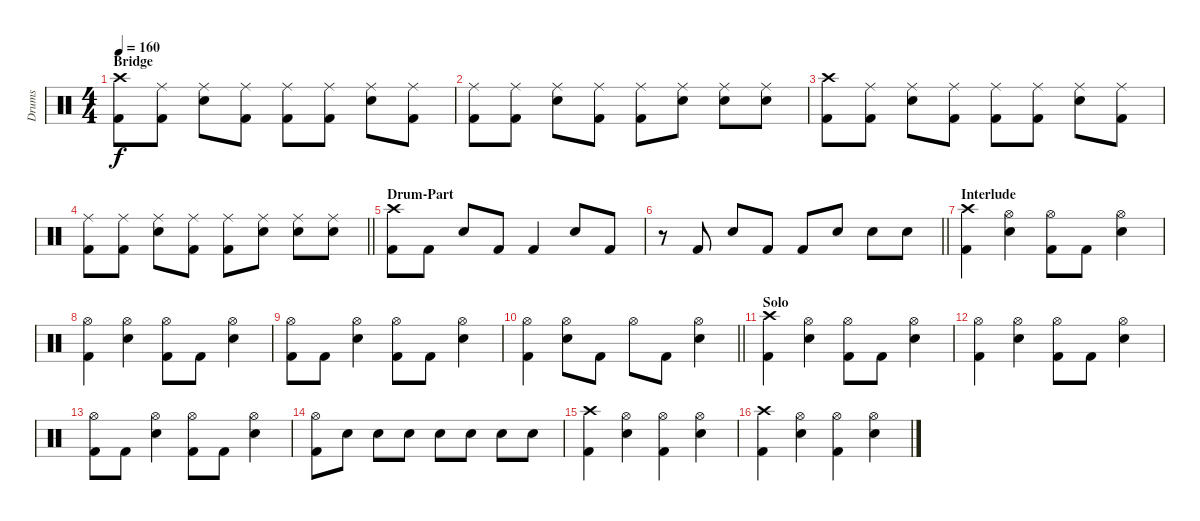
\track ("Drums" "Drums") {instrument percussion}
\staff {score}
\articulation defaults
\ts (4 4)
\section ("" "Bridge")
\tempo 160
\clef neutral
\ks c
("Crash high (hit)" "Kick (hit) 2").8{dy f} ("Ride (middle)" "Kick (hit) 2").8 ("Ride (middle)" "Electric Snare (hit)").8 ("Ride (middle)" "Kick (hit) 2").8 ("Ride (middle)" "Kick (hit) 2").8 ("Ride (middle)" "Kick (hit) 2").8 ("Ride (middle)" "Electric Snare (hit)").8 ("Ride (middle)" "Kick (hit) 2").8 |
("Ride (middle)" "Kick (hit) 2").8 ("Ride (middle)" "Kick (hit) 2").8 ("Ride (middle)" "Electric Snare (hit)").8 ("Ride (middle)" "Kick (hit) 2").8 ("Ride (middle)" "Kick (hit) 2").8 ("Ride (middle)" "Electric Snare (hit)").8 ("Ride (middle)" "Electric Snare (hit)").8 ("Ride (middle)" "Electric Snare (hit)").8 |
("Crash high (hit)" "Kick (hit) 2").8 ("Ride (middle)" "Kick (hit) 2").8 ("Ride (middle)" "Electric Snare (hit)").8 ("Ride (middle)" "Kick (hit) 2").8 ("Ride (middle)" "Kick (hit) 2").8 ("Ride (middle)" "Kick (hit) 2").8 ("Ride (middle)" "Electric Snare (hit)").8 ("Ride (middle)" "Kick (hit) 2").8 |
\barLineRight lightlight
("Ride (middle)" "Kick (hit) 2").8 ("Ride (middle)" "Kick (hit) 2").8 ("Ride (middle)" "Electric Snare (hit)").8 ("Ride (middle)" "Kick (hit) 2").8 ("Ride (middle)" "Kick (hit) 2").8 ("Ride (middle)" "Electric Snare (hit)").8 ("Ride (middle)" "Electric Snare (hit)").8 ("Ride (middle)" "Electric Snare (hit)").8 |
\section ("" "Drum-Part")
("Crash high (hit)" "Kick (hit) 2").8 "Kick (hit) 2".8 "Electric Snare (hit)".8 "Kick (hit) 2".8 "Kick (hit) 2".4 "Electric Snare (hit)".8 "Kick (hit) 2".8 |
\barLineRight lightlight
r.8 "Kick (hit) 2".8 "Electric Snare (hit)".8 "Kick (hit) 2".8 "Kick (hit) 2".8 "Electric Snare (hit)".8 "Electric Snare (hit)".8 "Electric Snare (hit)".8 |
\section ("" "Interlude")
("Crash high (hit)" "Kick (hit) 2").4 ("Hi-Hat (open)" "Electric Snare (hit)").4 ("Hi-Hat (open)" "Kick (hit) 2").8 "Kick (hit) 2".8 ("Hi-Hat (open)" "Electric Snare (hit)").4 |
("Hi-Hat (open)" "Kick (hit) 2").4 ("Hi-Hat (open)" "Electric Snare (hit)").4 ("Hi-Hat (open)" "Kick (hit) 2").8 "Kick (hit) 2".8 ("Hi-Hat (open)" "Electric Snare (hit)").4 |
("Hi-Hat (open)" "Kick (hit) 2").8 "Kick (hit) 2".8 ("Hi-Hat (open)" "Electric Snare (hit)").4 ("Hi-Hat (open)" "Kick (hit) 2").8 "Kick (hit) 2".8 ("Hi-Hat (open)" "Electric Snare (hit)").4 |
\barLineRight lightlight
("Hi-Hat (open)" "Kick (hit) 2").4 ("Hi-Hat (open)" "Electric Snare (hit)").8 "Kick (hit) 2".8 "Hi-Hat (open)".8 "Kick (hit) 2".8 ("Hi-Hat (open)" "Electric Snare (hit)").4 |
\section ("" "Solo")
("Crash high (hit)" "Kick (hit) 2").4 ("Hi-Hat (open)" "Electric Snare (hit)").4 ("Hi-Hat (open)" "Kick (hit) 2").8 "Kick (hit) 2".8 ("Hi-Hat (open)" "Electric Snare (hit)").4 |
("Hi-Hat (open)" "Kick (hit) 2").4 ("Hi-Hat (open)" "Electric Snare (hit)").4 ("Hi-Hat (open)" "Kick (hit) 2").8 "Kick (hit) 2".8 ("Hi-Hat (open)" "Electric Snare (hit)").4 |
("Hi-Hat (open)" "Kick (hit) 2").8 "Kick (hit) 2".8 ("Hi-Hat (open)" "Electric Snare (hit)").4 ("Hi-Hat (open)" "Kick (hit) 2").8 "Kick (hit) 2".8 ("Hi-Hat (open)" "Electric Snare (hit)").4 |
("Hi-Hat (open)" "Kick (hit) 2").8 "Electric Snare (hit)".8 "Electric Snare (hit)".8 "Electric Snare (hit)".8 "Electric Snare (hit)".8 "Electric Snare (hit)".8 "Electric Snare (hit)".8 "Electric Snare (hit)".8 |
("Crash high (hit)" "Kick (hit) 2").4 ("Hi-Hat (open)" "Electric Snare (hit)").4 ("Hi-Hat (open)" "Kick (hit) 2").4 ("Hi-Hat (open)" "Electric Snare (hit)").4 |
("Crash high (hit)" "Kick (hit) 2").4 ("Hi-Hat (open)" "Electric Snare (hit)").4 ("Hi-Hat (open)" "Kick (hit) 2").4 ("Hi-Hat (open)" "Electric Snare (hit)").4
